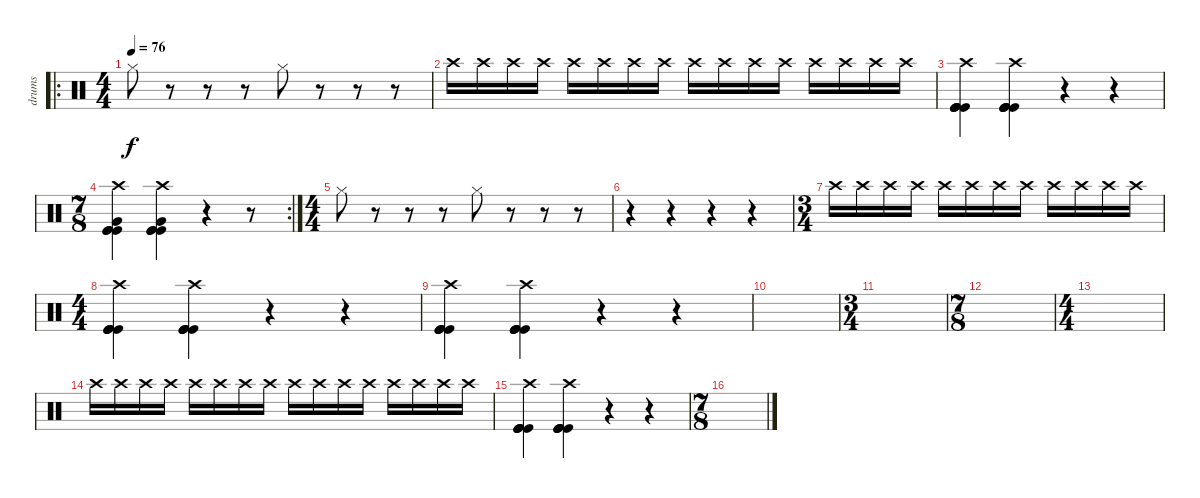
\track ("drums" "drums") {instrument percussion}
\staff {score}
\articulation defaults
\ro
\ts (4 4)
\tempo 76
\clef neutral
\ks c "Hi-Hat (closed)".8{dy f}
r.8 r.8 r.8 "Hi-Hat (closed)".8 r.8 r.8 r.8 |
"Crash high (hit)".16{volume 0} "Crash high (hit)".16 "Crash high (hit)".16 "Crash high (hit)".16 "Crash high (hit)".16{volume 13} "Crash high (hit)".16 "Crash high (hit)".16 "Crash high (hit)".16 "Crash high (hit)".16 "Crash high (hit)".16 "Crash high (hit)".16 "Crash high (hit)".16 "Crash high (hit)".16 "Crash high (hit)".16 "Crash high (hit)".16 "Crash high (hit)".16 |
("Crash high (hit)" "Kick (hit)" "Kick (hit)" "Kick (hit)" "Kick (hit)").4{volume 16} ("Crash high (hit)" "Kick (hit)" "Kick (hit)" "Kick (hit)" "Kick (hit)").4 r.4 r.4 |
\rc 2
\ts (7 8)
("Crash high (hit)" "Very Low Tom (hit)" "Kick (hit)" "Kick (hit)" "Kick (hit)").4 ("Crash high (hit)" "Very Low Tom (hit)" "Kick (hit)" "Kick (hit)" "Kick (hit)").4 r.4 r.8 |
\ts (4 4)
"Hi-Hat (closed)".8 r.8 r.8 r.8 "Hi-Hat (closed)".8 r.8 r.8 r.8 |
r.4 r.4 r.4 r.4{volume 0} |
\ts (3 4)
"Crash high (hit)".16{volume 13} "Crash high (hit)".16 "Crash high (hit)".16 "Crash high (hit)".16 "Crash high (hit)".16 "Crash high (hit)".16 "Crash high (hit)".16 "Crash high (hit)".16 "Crash high (hit)".16 "Crash high (hit)".16 "Crash high (hit)".16 "Crash high (hit)".16 |
\ts (4 4)
("Crash high (hit)" "Kick (hit)" "Kick (hit)" "Kick (hit)" "Kick (hit)").4{volume 16} ("Crash high (hit)" "Kick (hit)" "Kick (hit)" "Kick (hit)" "Kick (hit)").4 r.4 r.4 |
("Crash high (hit)" "Kick (hit)" "Kick (hit)" "Kick (hit)" "Kick (hit)").4{volume 16} ("Crash high (hit)" "Kick (hit)" "Kick (hit)" "Kick (hit)" "Kick (hit)").4 r.4 r.4 |
|
\ts (3 4)
|
\ts (7 8)
|
\ts (4 4)
|
"Crash high (hit)".16{volume 0} "Crash high (hit)".16 "Crash high (hit)".16 "Crash high (hit)".16 "Crash high (hit)".16{volume 13} "Crash high (hit)".16 "Crash high (hit)".16 "Crash high (hit)".16 "Crash high (hit)".16 "Crash high (hit)".16 "Crash high (hit)".16 "Crash high (hit)".16 "Crash high (hit)".16 "Crash high (hit)".16 "Crash high (hit)".16 "Crash high (hit)".16 |
("Crash high (hit)" "Kick (hit)" "Kick (hit)" "Kick (hit)" "Kick (hit)").4{volume 16} ("Crash high (hit)" "Kick (hit)" "Kick (hit)" "Kick (hit)" "Kick (hit)").4 r.4 r.4 |
\ts (7 8)
